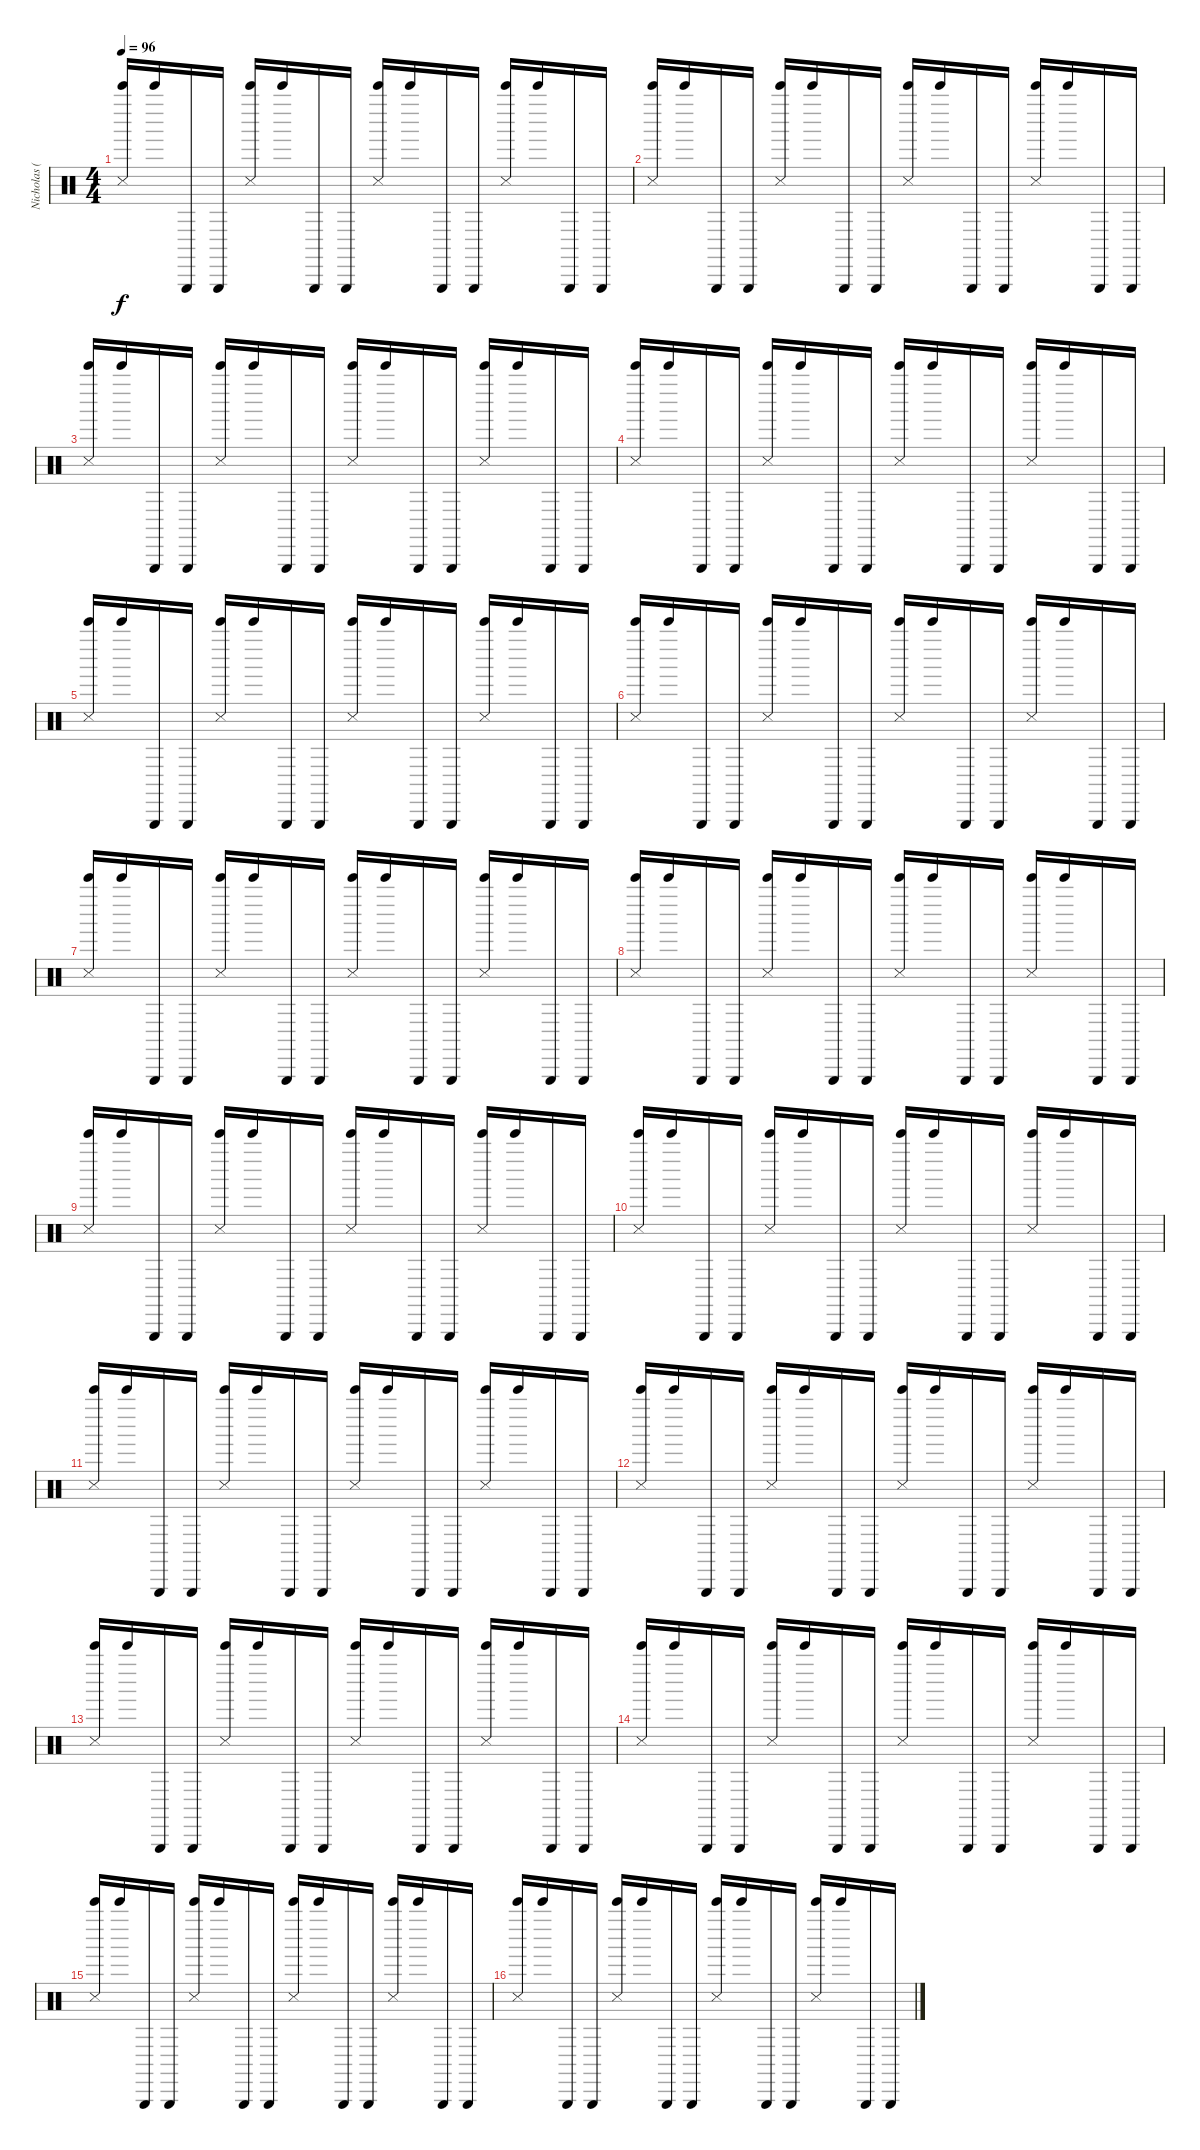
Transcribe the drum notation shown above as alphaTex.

\track ("Nicholas (Drums)" "Nicholas (") {instrument percussion}
\staff {score}
\articulation defaults
\ts (4 4)
\tempo 96
\clef neutral
\ks c
("Bell Tree (hit)" "Snare (side stick) 3").16{dy f} "Bell Tree (hit)".16 "Triangle (hit)".16 "Triangle (hit)".16 ("Bell Tree (hit)" "Metronome (hit)").16 "Bell Tree (hit)".16 "Triangle (hit)".16 "Triangle (hit)".16 ("Bell Tree (hit)" "Snare (side stick) 3").16 "Bell Tree (hit)".16 "Triangle (hit)".16 "Triangle (hit)".16 ("Bell Tree (hit)" "Metronome (hit)").16 "Bell Tree (hit)".16 "Triangle (hit)".16 "Triangle (hit)".16 |
("Bell Tree (hit)" "Snare (side stick) 3").16 "Bell Tree (hit)".16 "Triangle (hit)".16 "Triangle (hit)".16 ("Bell Tree (hit)" "Metronome (hit)").16 "Bell Tree (hit)".16 "Triangle (hit)".16 "Triangle (hit)".16 ("Bell Tree (hit)" "Snare (side stick) 3").16 "Bell Tree (hit)".16 "Triangle (hit)".16 "Triangle (hit)".16 ("Bell Tree (hit)" "Metronome (hit)").16 "Bell Tree (hit)".16 "Triangle (hit)".16 "Triangle (hit)".16 |
("Bell Tree (hit)" "Snare (side stick) 3").16 "Bell Tree (hit)".16 "Triangle (hit)".16 "Triangle (hit)".16 ("Bell Tree (hit)" "Metronome (hit)").16 "Bell Tree (hit)".16 "Triangle (hit)".16 "Triangle (hit)".16 ("Bell Tree (hit)" "Snare (side stick) 3").16 "Bell Tree (hit)".16 "Triangle (hit)".16 "Triangle (hit)".16 ("Bell Tree (hit)" "Metronome (hit)").16 "Bell Tree (hit)".16 "Triangle (hit)".16 "Triangle (hit)".16 |
("Bell Tree (hit)" "Snare (side stick) 3").16 "Bell Tree (hit)".16 "Triangle (hit)".16 "Triangle (hit)".16 ("Bell Tree (hit)" "Metronome (hit)").16 "Bell Tree (hit)".16 "Triangle (hit)".16 "Triangle (hit)".16 ("Bell Tree (hit)" "Snare (side stick) 3").16 "Bell Tree (hit)".16 "Triangle (hit)".16 "Triangle (hit)".16 ("Bell Tree (hit)" "Metronome (hit)").16 "Bell Tree (hit)".16 "Triangle (hit)".16 "Triangle (hit)".16 |
("Bell Tree (hit)" "Snare (side stick) 3").16 "Bell Tree (hit)".16 "Triangle (hit)".16 "Triangle (hit)".16 ("Bell Tree (hit)" "Metronome (hit)").16 "Bell Tree (hit)".16 "Triangle (hit)".16 "Triangle (hit)".16 ("Bell Tree (hit)" "Snare (side stick) 3").16 "Bell Tree (hit)".16 "Triangle (hit)".16 "Triangle (hit)".16 ("Bell Tree (hit)" "Metronome (hit)").16 "Bell Tree (hit)".16 "Triangle (hit)".16 "Triangle (hit)".16 |
("Bell Tree (hit)" "Snare (side stick) 3").16 "Bell Tree (hit)".16 "Triangle (hit)".16 "Triangle (hit)".16 ("Bell Tree (hit)" "Metronome (hit)").16 "Bell Tree (hit)".16 "Triangle (hit)".16 "Triangle (hit)".16 ("Bell Tree (hit)" "Snare (side stick) 3").16 "Bell Tree (hit)".16 "Triangle (hit)".16 "Triangle (hit)".16 ("Bell Tree (hit)" "Metronome (hit)").16 "Bell Tree (hit)".16 "Triangle (hit)".16 "Triangle (hit)".16 |
("Bell Tree (hit)" "Snare (side stick) 3").16 "Bell Tree (hit)".16 "Triangle (hit)".16 "Triangle (hit)".16 ("Bell Tree (hit)" "Metronome (hit)").16 "Bell Tree (hit)".16 "Triangle (hit)".16 "Triangle (hit)".16 ("Bell Tree (hit)" "Snare (side stick) 3").16 "Bell Tree (hit)".16 "Triangle (hit)".16 "Triangle (hit)".16 ("Bell Tree (hit)" "Metronome (hit)").16 "Bell Tree (hit)".16 "Triangle (hit)".16 "Triangle (hit)".16 |
("Bell Tree (hit)" "Snare (side stick) 3").16 "Bell Tree (hit)".16 "Triangle (hit)".16 "Triangle (hit)".16 ("Bell Tree (hit)" "Metronome (hit)").16 "Bell Tree (hit)".16 "Triangle (hit)".16 "Triangle (hit)".16 ("Bell Tree (hit)" "Snare (side stick) 3").16 "Bell Tree (hit)".16 "Triangle (hit)".16 "Triangle (hit)".16 ("Bell Tree (hit)" "Metronome (hit)").16 "Bell Tree (hit)".16 "Triangle (hit)".16 "Triangle (hit)".16 |
("Bell Tree (hit)" "Snare (side stick) 3").16 "Bell Tree (hit)".16 "Triangle (hit)".16 "Triangle (hit)".16 ("Bell Tree (hit)" "Metronome (hit)").16 "Bell Tree (hit)".16 "Triangle (hit)".16 "Triangle (hit)".16 ("Bell Tree (hit)" "Snare (side stick) 3").16 "Bell Tree (hit)".16 "Triangle (hit)".16 "Triangle (hit)".16 ("Bell Tree (hit)" "Metronome (hit)").16 "Bell Tree (hit)".16 "Triangle (hit)".16 "Triangle (hit)".16 |
("Bell Tree (hit)" "Snare (side stick) 3").16 "Bell Tree (hit)".16 "Triangle (hit)".16 "Triangle (hit)".16 ("Bell Tree (hit)" "Metronome (hit)").16 "Bell Tree (hit)".16 "Triangle (hit)".16 "Triangle (hit)".16 ("Bell Tree (hit)" "Snare (side stick) 3").16 "Bell Tree (hit)".16 "Triangle (hit)".16 "Triangle (hit)".16 ("Bell Tree (hit)" "Metronome (hit)").16 "Bell Tree (hit)".16 "Triangle (hit)".16 "Triangle (hit)".16 |
("Bell Tree (hit)" "Snare (side stick) 3").16 "Bell Tree (hit)".16 "Triangle (hit)".16 "Triangle (hit)".16 ("Bell Tree (hit)" "Metronome (hit)").16 "Bell Tree (hit)".16 "Triangle (hit)".16 "Triangle (hit)".16 ("Bell Tree (hit)" "Snare (side stick) 3").16 "Bell Tree (hit)".16 "Triangle (hit)".16 "Triangle (hit)".16 ("Bell Tree (hit)" "Metronome (hit)").16 "Bell Tree (hit)".16 "Triangle (hit)".16 "Triangle (hit)".16 |
("Bell Tree (hit)" "Snare (side stick) 3").16 "Bell Tree (hit)".16 "Triangle (hit)".16 "Triangle (hit)".16 ("Bell Tree (hit)" "Metronome (hit)").16 "Bell Tree (hit)".16 "Triangle (hit)".16 "Triangle (hit)".16 ("Bell Tree (hit)" "Snare (side stick) 3").16 "Bell Tree (hit)".16 "Triangle (hit)".16 "Triangle (hit)".16 ("Bell Tree (hit)" "Metronome (hit)").16 "Bell Tree (hit)".16 "Triangle (hit)".16 "Triangle (hit)".16 |
("Bell Tree (hit)" "Snare (side stick) 3").16 "Bell Tree (hit)".16 "Triangle (hit)".16 "Triangle (hit)".16 ("Bell Tree (hit)" "Metronome (hit)").16 "Bell Tree (hit)".16 "Triangle (hit)".16 "Triangle (hit)".16 ("Bell Tree (hit)" "Snare (side stick) 3").16 "Bell Tree (hit)".16 "Triangle (hit)".16 "Triangle (hit)".16 ("Bell Tree (hit)" "Metronome (hit)").16 "Bell Tree (hit)".16 "Triangle (hit)".16 "Triangle (hit)".16 |
("Bell Tree (hit)" "Snare (side stick) 3").16 "Bell Tree (hit)".16 "Triangle (hit)".16 "Triangle (hit)".16 ("Bell Tree (hit)" "Metronome (hit)").16 "Bell Tree (hit)".16 "Triangle (hit)".16 "Triangle (hit)".16 ("Bell Tree (hit)" "Snare (side stick) 3").16 "Bell Tree (hit)".16 "Triangle (hit)".16 "Triangle (hit)".16 ("Bell Tree (hit)" "Metronome (hit)").16 "Bell Tree (hit)".16 "Triangle (hit)".16 "Triangle (hit)".16 |
("Bell Tree (hit)" "Snare (side stick) 3").16 "Bell Tree (hit)".16 "Triangle (hit)".16 "Triangle (hit)".16 ("Bell Tree (hit)" "Metronome (hit)").16 "Bell Tree (hit)".16 "Triangle (hit)".16 "Triangle (hit)".16 ("Bell Tree (hit)" "Snare (side stick) 3").16 "Bell Tree (hit)".16 "Triangle (hit)".16 "Triangle (hit)".16 ("Bell Tree (hit)" "Metronome (hit)").16 "Bell Tree (hit)".16 "Triangle (hit)".16 "Triangle (hit)".16 |
("Bell Tree (hit)" "Snare (side stick) 3").16 "Bell Tree (hit)".16 "Triangle (hit)".16 "Triangle (hit)".16 ("Bell Tree (hit)" "Metronome (hit)").16 "Bell Tree (hit)".16 "Triangle (hit)".16 "Triangle (hit)".16 ("Bell Tree (hit)" "Snare (side stick) 3").16 "Bell Tree (hit)".16 "Triangle (hit)".16 "Triangle (hit)".16 ("Bell Tree (hit)" "Metronome (hit)").16 "Bell Tree (hit)".16 "Triangle (hit)".16 "Triangle (hit)".16
